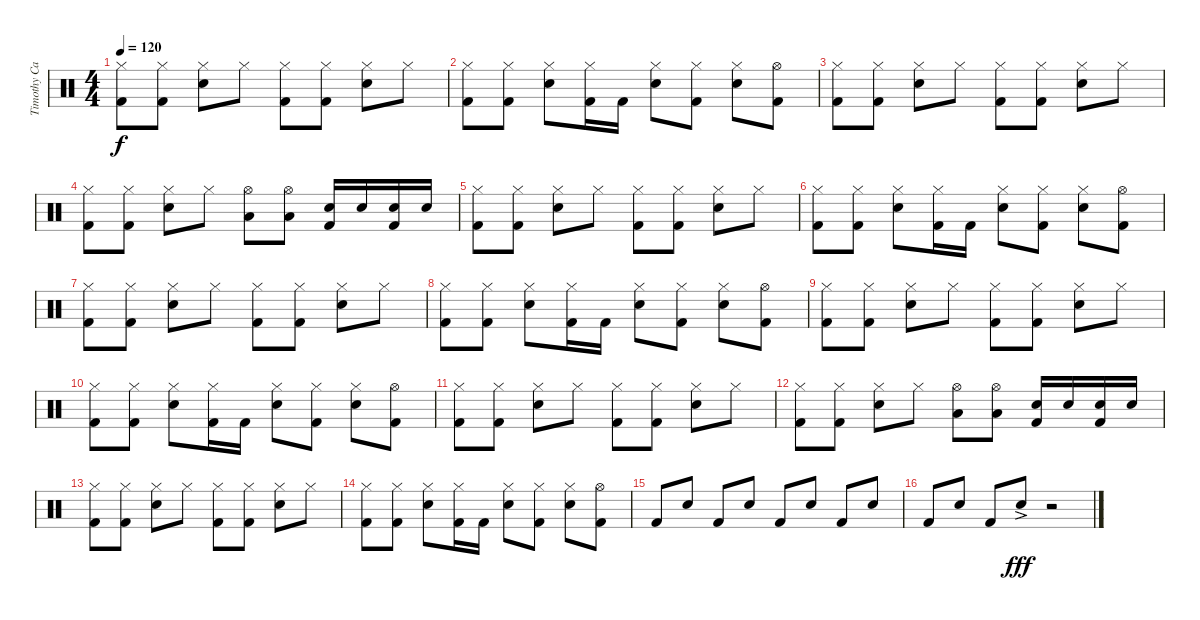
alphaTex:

\track ("Timothy Calkin" "Timothy Ca") {instrument percussion}
\staff {score}
\articulation defaults
\ts (4 4)
\tempo 120
\clef neutral
\ks c
("Hi-Hat (closed)" "Kick (hit) 2").8{dy f} ("Hi-Hat (closed)" "Kick (hit) 2").8 ("Hi-Hat (closed)" "Snare (hit) 2").8 "Hi-Hat (closed)".8 ("Hi-Hat (closed)" "Kick (hit) 2").8 ("Hi-Hat (closed)" "Kick (hit) 2").8 ("Hi-Hat (closed)" "Snare (hit) 2").8 "Hi-Hat (closed)".8 |
("Hi-Hat (closed)" "Kick (hit) 2").8 ("Hi-Hat (closed)" "Kick (hit) 2").8 ("Hi-Hat (closed)" "Snare (hit) 2").8 ("Hi-Hat (closed)" "Kick (hit) 2").16 "Kick (hit) 2".16 ("Hi-Hat (closed)" "Snare (hit) 2").8 ("Hi-Hat (closed)" "Kick (hit) 2").8 ("Hi-Hat (closed)" "Snare (hit) 2").8 ("Hi-Hat (open)" "Kick (hit) 2").8 |
("Hi-Hat (closed)" "Kick (hit) 2").8 ("Hi-Hat (closed)" "Kick (hit) 2").8 ("Hi-Hat (closed)" "Snare (hit) 2").8 "Hi-Hat (closed)".8 ("Hi-Hat (closed)" "Kick (hit) 2").8 ("Hi-Hat (closed)" "Kick (hit) 2").8 ("Hi-Hat (closed)" "Snare (hit) 2").8 "Hi-Hat (closed)".8 |
("Hi-Hat (closed)" "Kick (hit) 2").8 ("Hi-Hat (closed)" "Kick (hit) 2").8 ("Hi-Hat (closed)" "Snare (hit) 2").8 "Hi-Hat (closed)".8 ("Hi-Hat (open)" "Low Floor Tom (hit)").8 ("Hi-Hat (open)" "Low Floor Tom (hit)").8 ("Snare (hit) 2" "Kick (hit) 2").16 "Snare (hit) 2".16 ("Snare (hit) 2" "Kick (hit) 2").16 "Snare (hit) 2".16 |
("Hi-Hat (closed)" "Kick (hit) 2").8 ("Hi-Hat (closed)" "Kick (hit) 2").8 ("Hi-Hat (closed)" "Snare (hit) 2").8 "Hi-Hat (closed)".8 ("Hi-Hat (closed)" "Kick (hit) 2").8 ("Hi-Hat (closed)" "Kick (hit) 2").8 ("Hi-Hat (closed)" "Snare (hit) 2").8 "Hi-Hat (closed)".8 |
("Hi-Hat (closed)" "Kick (hit) 2").8 ("Hi-Hat (closed)" "Kick (hit) 2").8 ("Hi-Hat (closed)" "Snare (hit) 2").8 ("Hi-Hat (closed)" "Kick (hit) 2").16 "Kick (hit) 2".16 ("Hi-Hat (closed)" "Snare (hit) 2").8 ("Hi-Hat (closed)" "Kick (hit) 2").8 ("Hi-Hat (closed)" "Snare (hit) 2").8 ("Hi-Hat (open)" "Kick (hit) 2").8 |
("Hi-Hat (closed)" "Kick (hit) 2").8 ("Hi-Hat (closed)" "Kick (hit) 2").8 ("Hi-Hat (closed)" "Snare (hit) 2").8 "Hi-Hat (closed)".8 ("Hi-Hat (closed)" "Kick (hit) 2").8 ("Hi-Hat (closed)" "Kick (hit) 2").8 ("Hi-Hat (closed)" "Snare (hit) 2").8 "Hi-Hat (closed)".8 |
("Hi-Hat (closed)" "Kick (hit) 2").8 ("Hi-Hat (closed)" "Kick (hit) 2").8 ("Hi-Hat (closed)" "Snare (hit) 2").8 ("Hi-Hat (closed)" "Kick (hit) 2").16 "Kick (hit) 2".16 ("Hi-Hat (closed)" "Snare (hit) 2").8 ("Hi-Hat (closed)" "Kick (hit) 2").8 ("Hi-Hat (closed)" "Snare (hit) 2").8 ("Hi-Hat (open)" "Kick (hit) 2").8 |
("Hi-Hat (closed)" "Kick (hit) 2").8 ("Hi-Hat (closed)" "Kick (hit) 2").8 ("Hi-Hat (closed)" "Snare (hit) 2").8 "Hi-Hat (closed)".8 ("Hi-Hat (closed)" "Kick (hit) 2").8 ("Hi-Hat (closed)" "Kick (hit) 2").8 ("Hi-Hat (closed)" "Snare (hit) 2").8 "Hi-Hat (closed)".8 |
("Hi-Hat (closed)" "Kick (hit) 2").8 ("Hi-Hat (closed)" "Kick (hit) 2").8 ("Hi-Hat (closed)" "Snare (hit) 2").8 ("Hi-Hat (closed)" "Kick (hit) 2").16 "Kick (hit) 2".16 ("Hi-Hat (closed)" "Snare (hit) 2").8 ("Hi-Hat (closed)" "Kick (hit) 2").8 ("Hi-Hat (closed)" "Snare (hit) 2").8 ("Hi-Hat (open)" "Kick (hit) 2").8 |
("Hi-Hat (closed)" "Kick (hit) 2").8 ("Hi-Hat (closed)" "Kick (hit) 2").8 ("Hi-Hat (closed)" "Snare (hit) 2").8 "Hi-Hat (closed)".8 ("Hi-Hat (closed)" "Kick (hit) 2").8 ("Hi-Hat (closed)" "Kick (hit) 2").8 ("Hi-Hat (closed)" "Snare (hit) 2").8 "Hi-Hat (closed)".8 |
("Hi-Hat (closed)" "Kick (hit) 2").8 ("Hi-Hat (closed)" "Kick (hit) 2").8 ("Hi-Hat (closed)" "Snare (hit) 2").8 "Hi-Hat (closed)".8 ("Hi-Hat (open)" "Low Floor Tom (hit)").8 ("Hi-Hat (open)" "Low Floor Tom (hit)").8 ("Snare (hit) 2" "Kick (hit) 2").16 "Snare (hit) 2".16 ("Snare (hit) 2" "Kick (hit) 2").16 "Snare (hit) 2".16 |
("Hi-Hat (closed)" "Kick (hit) 2").8 ("Hi-Hat (closed)" "Kick (hit) 2").8 ("Hi-Hat (closed)" "Snare (hit) 2").8 "Hi-Hat (closed)".8 ("Hi-Hat (closed)" "Kick (hit) 2").8 ("Hi-Hat (closed)" "Kick (hit) 2").8 ("Hi-Hat (closed)" "Snare (hit) 2").8 "Hi-Hat (closed)".8 |
("Hi-Hat (closed)" "Kick (hit) 2").8 ("Hi-Hat (closed)" "Kick (hit) 2").8 ("Hi-Hat (closed)" "Snare (hit) 2").8 ("Hi-Hat (closed)" "Kick (hit) 2").16 "Kick (hit) 2".16 ("Hi-Hat (closed)" "Snare (hit) 2").8 ("Hi-Hat (closed)" "Kick (hit) 2").8 ("Hi-Hat (closed)" "Snare (hit) 2").8 ("Hi-Hat (open)" "Kick (hit) 2").8 |
"Kick (hit) 2".8 "Snare (hit) 2".8 "Kick (hit) 2".8 "Snare (hit) 2".8 "Kick (hit) 2".8 "Snare (hit) 2".8 "Kick (hit) 2".8 "Snare (hit) 2".8 |
"Kick (hit) 2".8 "Snare (hit) 2".8 "Kick (hit) 2".8 "Snare (hit) 2"{ac}.8{dy fff} r.2
